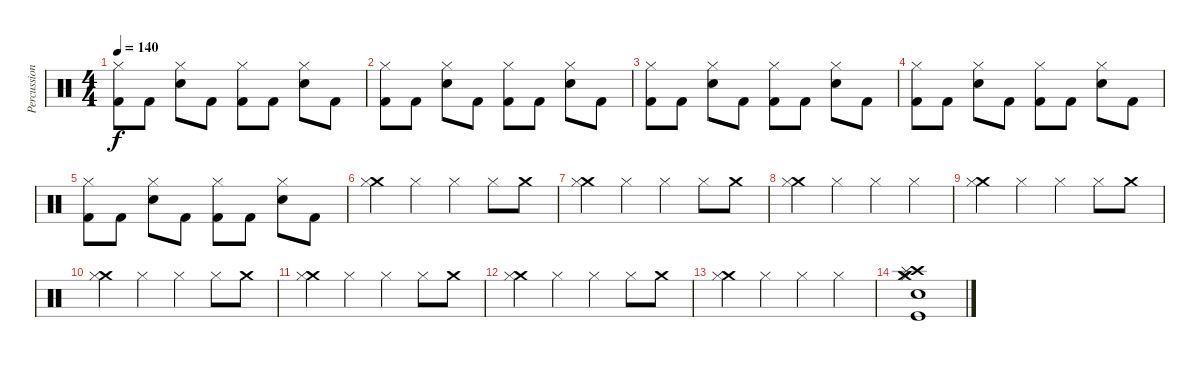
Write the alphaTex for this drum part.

\track ("Percussion" "Percussion") {instrument percussion}
\staff {score}
\articulation defaults
\ts (4 4)
\tempo 140
\clef neutral
\ks c
("Hi-Hat (closed)" "Kick (hit) 2").8{dy f} "Kick (hit) 2".8 ("Electric Snare (hit)" "Hi-Hat (closed)").8 "Kick (hit) 2".8 ("Hi-Hat (closed)" "Kick (hit) 2").8 "Kick (hit) 2".8 ("Electric Snare (hit)" "Hi-Hat (closed)").8 "Kick (hit) 2".8 |
("Hi-Hat (closed)" "Kick (hit) 2").8 "Kick (hit) 2".8 ("Electric Snare (hit)" "Hi-Hat (closed)").8 "Kick (hit) 2".8 ("Hi-Hat (closed)" "Kick (hit) 2").8 "Kick (hit) 2".8 ("Electric Snare (hit)" "Hi-Hat (closed)").8 "Kick (hit) 2".8 |
("Hi-Hat (closed)" "Kick (hit) 2").8 "Kick (hit) 2".8 ("Electric Snare (hit)" "Hi-Hat (closed)").8 "Kick (hit) 2".8 ("Hi-Hat (closed)" "Kick (hit) 2").8 "Kick (hit) 2".8 ("Electric Snare (hit)" "Hi-Hat (closed)").8 "Kick (hit) 2".8 |
("Hi-Hat (closed)" "Kick (hit) 2").8 "Kick (hit) 2".8 ("Electric Snare (hit)" "Hi-Hat (closed)").8 "Kick (hit) 2".8 ("Hi-Hat (closed)" "Kick (hit) 2").8 "Kick (hit) 2".8 ("Electric Snare (hit)" "Hi-Hat (closed)").8 "Kick (hit) 2".8 |
("Hi-Hat (closed)" "Kick (hit) 2").8 "Kick (hit) 2".8 ("Electric Snare (hit)" "Hi-Hat (closed)").8 "Kick (hit) 2".8 ("Hi-Hat (closed)" "Kick (hit) 2").8 "Kick (hit) 2".8 ("Electric Snare (hit)" "Hi-Hat (closed)").8 "Kick (hit) 2".8 |
("Crash medium (hit)" "Hi-Hat (closed)").4 "Hi-Hat (closed)".4 "Hi-Hat (closed)".4 "Hi-Hat (closed)".8 "Crash medium (hit)".8 |
("Crash medium (hit)" "Hi-Hat (closed)").4 "Hi-Hat (closed)".4 "Hi-Hat (closed)".4 "Hi-Hat (closed)".8 "Crash medium (hit)".8 |
("Crash medium (hit)" "Hi-Hat (closed)").4 "Hi-Hat (closed)".4 "Hi-Hat (closed)".4 "Hi-Hat (closed)".4 |
("Crash medium (hit)" "Hi-Hat (closed)").4 "Hi-Hat (closed)".4 "Hi-Hat (closed)".4 "Hi-Hat (closed)".8 "Crash medium (hit)".8 |
("Crash medium (hit)" "Hi-Hat (closed)").4 "Hi-Hat (closed)".4 "Hi-Hat (closed)".4 "Hi-Hat (closed)".8 "Crash medium (hit)".8 |
("Crash medium (hit)" "Hi-Hat (closed)").4 "Hi-Hat (closed)".4 "Hi-Hat (closed)".4 "Hi-Hat (closed)".8 "Crash medium (hit)".8 |
("Crash medium (hit)" "Hi-Hat (closed)").4 "Hi-Hat (closed)".4 "Hi-Hat (closed)".4 "Hi-Hat (closed)".8 "Crash medium (hit)".8 |
("Crash medium (hit)" "Hi-Hat (closed)").4 "Hi-Hat (closed)".4 "Hi-Hat (closed)".4 "Hi-Hat (closed)".4 |
("Crash medium (hit)" "Hi-Hat (closed)" "Crash high (hit)" "Splash (hit)" "Electric Snare (hit)" "Kick (hit)").1
